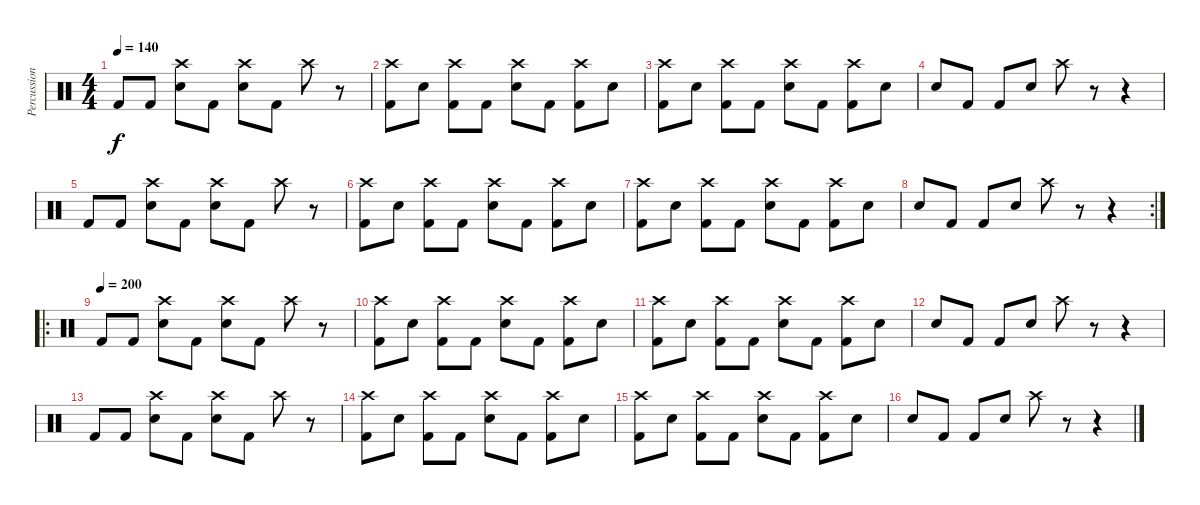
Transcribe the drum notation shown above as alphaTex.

\track ("Percussion" "Percussion") {instrument percussion}
\staff {score}
\articulation defaults
\ts (4 4)
\tempo 140
\clef neutral
\ks c "Kick (hit) 2".8{dy f} "Kick (hit) 2".8
("Crash high (hit)" "Electric Snare (hit)").8 "Kick (hit) 2".8 ("Crash high (hit)" "Electric Snare (hit)").8 "Kick (hit) 2".8 "Crash high (hit)".8 r.8 |
("Crash high (hit)" "Kick (hit) 2").8 "Electric Snare (hit)".8 ("Crash high (hit)" "Kick (hit) 2").8 "Kick (hit) 2".8 ("Crash high (hit)" "Electric Snare (hit)").8 "Kick (hit) 2".8 ("Crash high (hit)" "Kick (hit) 2").8 "Electric Snare (hit)".8 |
("Crash high (hit)" "Kick (hit) 2").8 "Electric Snare (hit)".8 ("Crash high (hit)" "Kick (hit) 2").8 "Kick (hit) 2".8 ("Crash high (hit)" "Electric Snare (hit)").8 "Kick (hit) 2".8 ("Crash high (hit)" "Kick (hit) 2").8 "Electric Snare (hit)".8 |
"Electric Snare (hit)".8 "Kick (hit) 2".8 "Kick (hit) 2".8 "Electric Snare (hit)".8 "Crash high (hit)".8 r.8 r.4 |
"Kick (hit) 2".8 "Kick (hit) 2".8 ("Crash high (hit)" "Electric Snare (hit)").8 "Kick (hit) 2".8 ("Crash high (hit)" "Electric Snare (hit)").8 "Kick (hit) 2".8 "Crash high (hit)".8 r.8 |
("Crash high (hit)" "Kick (hit) 2").8 "Electric Snare (hit)".8 ("Crash high (hit)" "Kick (hit) 2").8 "Kick (hit) 2".8 ("Crash high (hit)" "Electric Snare (hit)").8 "Kick (hit) 2".8 ("Crash high (hit)" "Kick (hit) 2").8 "Electric Snare (hit)".8 |
("Crash high (hit)" "Kick (hit) 2").8 "Electric Snare (hit)".8 ("Crash high (hit)" "Kick (hit) 2").8 "Kick (hit) 2".8 ("Crash high (hit)" "Electric Snare (hit)").8 "Kick (hit) 2".8 ("Crash high (hit)" "Kick (hit) 2").8 "Electric Snare (hit)".8 |
\rc 2 "Electric Snare (hit)".8 "Kick (hit) 2".8 "Kick (hit) 2".8 "Electric Snare (hit)".8 "Crash high (hit)".8
r.8 r.4 |
\ro
\tempo (200)
"Kick (hit) 2".8 "Kick (hit) 2".8 ("Crash high (hit)" "Electric Snare (hit)").8 "Kick (hit) 2".8 ("Crash high (hit)" "Electric Snare (hit)").8 "Kick (hit) 2".8 "Crash high (hit)".8 r.8 |
("Crash high (hit)" "Kick (hit) 2").8 "Electric Snare (hit)".8 ("Crash high (hit)" "Kick (hit) 2").8 "Kick (hit) 2".8 ("Crash high (hit)" "Electric Snare (hit)").8 "Kick (hit) 2".8 ("Crash high (hit)" "Kick (hit) 2").8 "Electric Snare (hit)".8 |
("Crash high (hit)" "Kick (hit) 2").8 "Electric Snare (hit)".8 ("Crash high (hit)" "Kick (hit) 2").8 "Kick (hit) 2".8 ("Crash high (hit)" "Electric Snare (hit)").8 "Kick (hit) 2".8 ("Crash high (hit)" "Kick (hit) 2").8 "Electric Snare (hit)".8 |
"Electric Snare (hit)".8 "Kick (hit) 2".8 "Kick (hit) 2".8 "Electric Snare (hit)".8 "Crash high (hit)".8 r.8 r.4 |
"Kick (hit) 2".8 "Kick (hit) 2".8 ("Crash high (hit)" "Electric Snare (hit)").8 "Kick (hit) 2".8 ("Crash high (hit)" "Electric Snare (hit)").8 "Kick (hit) 2".8 "Crash high (hit)".8 r.8 |
("Crash high (hit)" "Kick (hit) 2").8 "Electric Snare (hit)".8 ("Crash high (hit)" "Kick (hit) 2").8 "Kick (hit) 2".8 ("Crash high (hit)" "Electric Snare (hit)").8 "Kick (hit) 2".8 ("Crash high (hit)" "Kick (hit) 2").8 "Electric Snare (hit)".8 |
("Crash high (hit)" "Kick (hit) 2").8 "Electric Snare (hit)".8 ("Crash high (hit)" "Kick (hit) 2").8 "Kick (hit) 2".8 ("Crash high (hit)" "Electric Snare (hit)").8 "Kick (hit) 2".8 ("Crash high (hit)" "Kick (hit) 2").8 "Electric Snare (hit)".8 |
"Electric Snare (hit)".8 "Kick (hit) 2".8 "Kick (hit) 2".8 "Electric Snare (hit)".8 "Crash high (hit)".8 r.8 r.4
